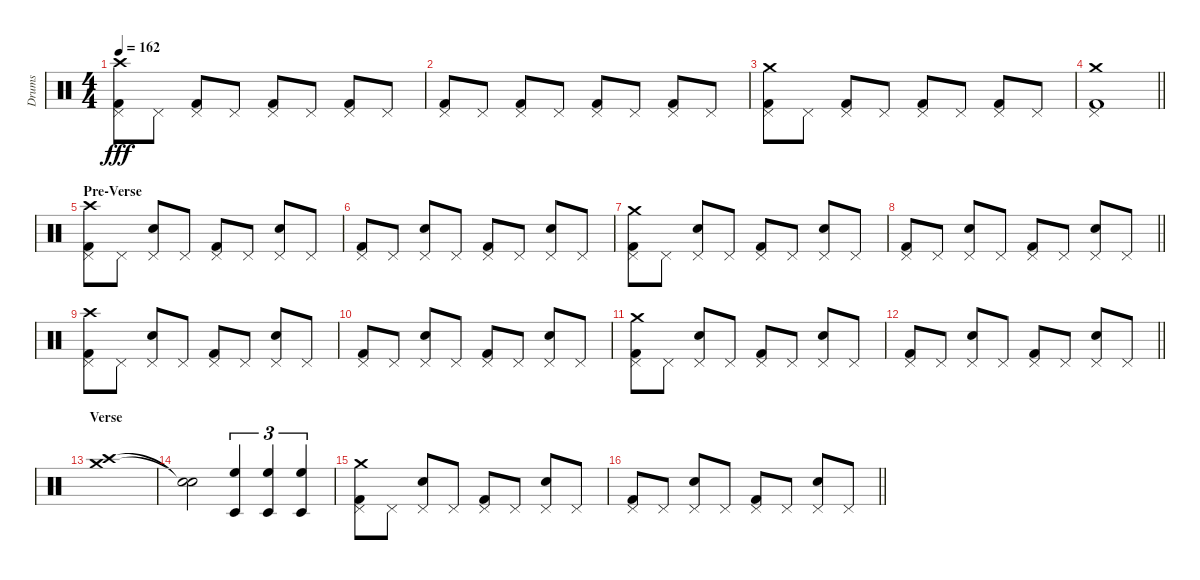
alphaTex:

\track ("Drums" "Drums") {instrument percussion}
\staff {score}
\articulation defaults
\ts (4 4)
\tempo 162
\clef neutral
\ks c
("Crash high (hit)" "Pedal Hi-Hat (hit)" "Kick (hit) 2").8{dy fff} "Pedal Hi-Hat (hit)".8 ("Pedal Hi-Hat (hit)" "Kick (hit) 2").8 "Pedal Hi-Hat (hit)".8 ("Pedal Hi-Hat (hit)" "Kick (hit) 2").8 "Pedal Hi-Hat (hit)".8 ("Pedal Hi-Hat (hit)" "Kick (hit) 2").8 "Pedal Hi-Hat (hit)".8 |
("Pedal Hi-Hat (hit)" "Kick (hit) 2").8 "Pedal Hi-Hat (hit)".8 ("Pedal Hi-Hat (hit)" "Kick (hit) 2").8 "Pedal Hi-Hat (hit)".8 ("Pedal Hi-Hat (hit)" "Kick (hit) 2").8 "Pedal Hi-Hat (hit)".8 ("Pedal Hi-Hat (hit)" "Kick (hit) 2").8 "Pedal Hi-Hat (hit)".8 |
("Crash medium (hit)" "Pedal Hi-Hat (hit)" "Kick (hit) 2").8 "Pedal Hi-Hat (hit)".8 ("Pedal Hi-Hat (hit)" "Kick (hit) 2").8 "Pedal Hi-Hat (hit)".8 ("Pedal Hi-Hat (hit)" "Kick (hit) 2").8 "Pedal Hi-Hat (hit)".8 ("Pedal Hi-Hat (hit)" "Kick (hit) 2").8 "Pedal Hi-Hat (hit)".8 |
\barLineRight lightlight
("Crash medium (hit)" "Pedal Hi-Hat (hit)" "Kick (hit) 2").1 |
\section ("" "Pre-Verse")
("Crash high (hit)" "Pedal Hi-Hat (hit)" "Kick (hit) 2").8 "Pedal Hi-Hat (hit)".8 ("Pedal Hi-Hat (hit)" "Snare (hit) 2").8 "Pedal Hi-Hat (hit)".8 ("Pedal Hi-Hat (hit)" "Kick (hit) 2").8 "Pedal Hi-Hat (hit)".8 ("Pedal Hi-Hat (hit)" "Snare (hit) 2").8 "Pedal Hi-Hat (hit)".8 |
("Pedal Hi-Hat (hit)" "Kick (hit) 2").8 "Pedal Hi-Hat (hit)".8 ("Pedal Hi-Hat (hit)" "Snare (hit) 2").8 "Pedal Hi-Hat (hit)".8 ("Pedal Hi-Hat (hit)" "Kick (hit) 2").8 "Pedal Hi-Hat (hit)".8 ("Pedal Hi-Hat (hit)" "Snare (hit) 2").8 "Pedal Hi-Hat (hit)".8 |
("Crash medium (hit)" "Pedal Hi-Hat (hit)" "Kick (hit) 2").8 "Pedal Hi-Hat (hit)".8 ("Pedal Hi-Hat (hit)" "Snare (hit) 2").8 "Pedal Hi-Hat (hit)".8 ("Pedal Hi-Hat (hit)" "Kick (hit) 2").8 "Pedal Hi-Hat (hit)".8 ("Pedal Hi-Hat (hit)" "Snare (hit) 2").8 "Pedal Hi-Hat (hit)".8 |
\barLineRight lightlight
("Pedal Hi-Hat (hit)" "Kick (hit) 2").8 "Pedal Hi-Hat (hit)".8 ("Pedal Hi-Hat (hit)" "Snare (hit) 2").8 "Pedal Hi-Hat (hit)".8 ("Pedal Hi-Hat (hit)" "Kick (hit) 2").8 "Pedal Hi-Hat (hit)".8 ("Pedal Hi-Hat (hit)" "Snare (hit) 2").8 "Pedal Hi-Hat (hit)".8 |
("Crash high (hit)" "Pedal Hi-Hat (hit)" "Kick (hit) 2").8 "Pedal Hi-Hat (hit)".8 ("Pedal Hi-Hat (hit)" "Snare (hit) 2").8 "Pedal Hi-Hat (hit)".8 ("Pedal Hi-Hat (hit)" "Kick (hit) 2").8 "Pedal Hi-Hat (hit)".8 ("Pedal Hi-Hat (hit)" "Snare (hit) 2").8 "Pedal Hi-Hat (hit)".8 |
("Pedal Hi-Hat (hit)" "Kick (hit) 2").8 "Pedal Hi-Hat (hit)".8 ("Pedal Hi-Hat (hit)" "Snare (hit) 2").8 "Pedal Hi-Hat (hit)".8 ("Pedal Hi-Hat (hit)" "Kick (hit) 2").8 "Pedal Hi-Hat (hit)".8 ("Pedal Hi-Hat (hit)" "Snare (hit) 2").8 "Pedal Hi-Hat (hit)".8 |
("Crash medium (hit)" "Pedal Hi-Hat (hit)" "Kick (hit) 2").8 "Pedal Hi-Hat (hit)".8 ("Pedal Hi-Hat (hit)" "Snare (hit) 2").8 "Pedal Hi-Hat (hit)".8 ("Pedal Hi-Hat (hit)" "Kick (hit) 2").8 "Pedal Hi-Hat (hit)".8 ("Pedal Hi-Hat (hit)" "Snare (hit) 2").8 "Pedal Hi-Hat (hit)".8 |
\barLineRight lightlight
("Pedal Hi-Hat (hit)" "Kick (hit) 2").8 "Pedal Hi-Hat (hit)".8 ("Pedal Hi-Hat (hit)" "Snare (hit) 2").8 "Pedal Hi-Hat (hit)".8 ("Pedal Hi-Hat (hit)" "Kick (hit) 2").8 "Pedal Hi-Hat (hit)".8 ("Pedal Hi-Hat (hit)" "Snare (hit) 2").8 "Pedal Hi-Hat (hit)".8 |
\section ("" "Verse")
("Crash medium (hit)" "Crash high (hit)").1 |
("Snare (hit)"{t} "Snare (hit)"{t}).2 ("Timbale low (hit)" "High Floor Tom (hit)").4{tu (3 2)} ("Timbale low (hit)" "High Floor Tom (hit)").4{tu (3 2)} ("Timbale low (hit)" "High Floor Tom (hit)").4{tu (3 2)} |
("Crash medium (hit)" "Pedal Hi-Hat (hit)" "Kick (hit) 2").8 "Pedal Hi-Hat (hit)".8 ("Pedal Hi-Hat (hit)" "Snare (hit) 2").8 "Pedal Hi-Hat (hit)".8 ("Pedal Hi-Hat (hit)" "Kick (hit) 2").8 "Pedal Hi-Hat (hit)".8 ("Pedal Hi-Hat (hit)" "Snare (hit) 2").8 "Pedal Hi-Hat (hit)".8 |
\barLineRight lightlight
("Pedal Hi-Hat (hit)" "Kick (hit) 2").8 "Pedal Hi-Hat (hit)".8 ("Pedal Hi-Hat (hit)" "Snare (hit) 2").8 "Pedal Hi-Hat (hit)".8 ("Pedal Hi-Hat (hit)" "Kick (hit) 2").8 "Pedal Hi-Hat (hit)".8 ("Pedal Hi-Hat (hit)" "Snare (hit) 2").8 "Pedal Hi-Hat (hit)".8
